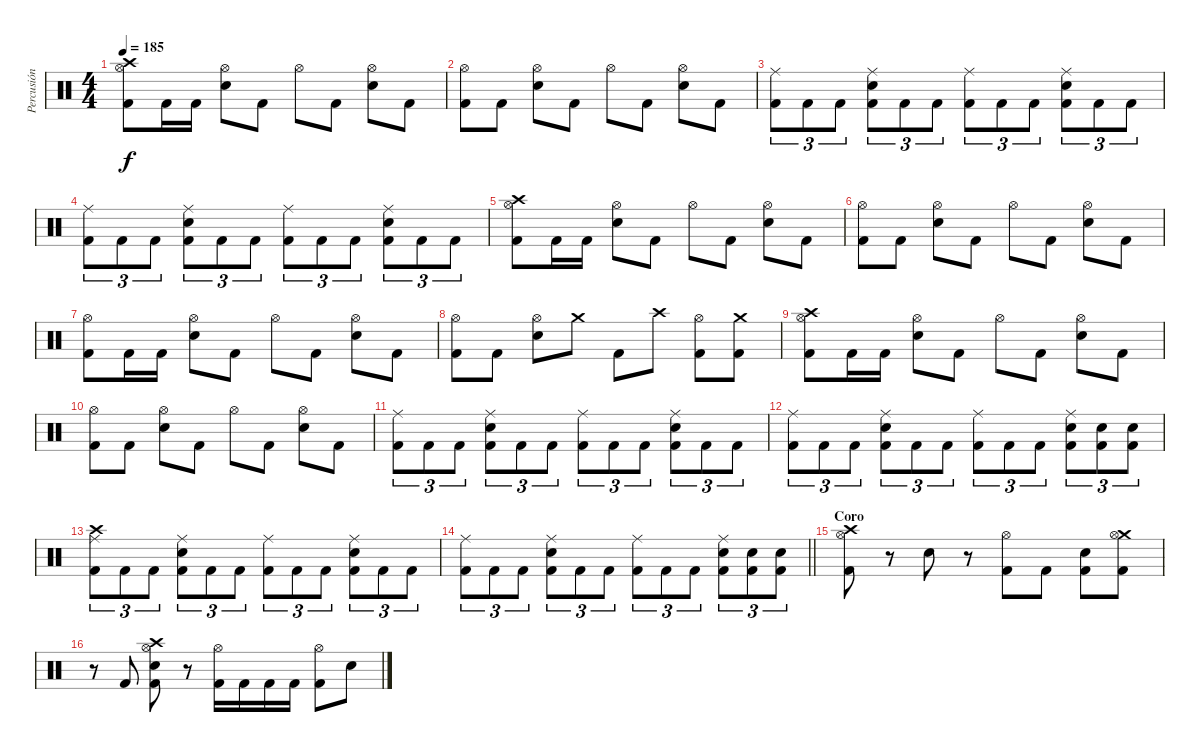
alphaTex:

\track ("Percusión" "Percusión") {instrument percussion}
\staff {score}
\articulation defaults
\ts (4 4)
\tempo 185
\clef neutral
\ks c
("Crash high (hit)" "Hi-Hat (open)" "Kick (hit) 2").8{dy f} "Kick (hit) 2".16 "Kick (hit) 2".16 ("Hi-Hat (open)" "Snare (hit) 2").8 "Kick (hit) 2".8 "Hi-Hat (open)".8 "Kick (hit) 2".8 ("Hi-Hat (open)" "Snare (hit) 2").8 "Kick (hit) 2".8 |
("Hi-Hat (open)" "Kick (hit) 2").8 "Kick (hit) 2".8 ("Hi-Hat (open)" "Snare (hit) 2").8 "Kick (hit) 2".8 "Hi-Hat (open)".8 "Kick (hit) 2".8 ("Hi-Hat (open)" "Snare (hit) 2").8 "Kick (hit) 2".8 |
("Ride (middle)" "Kick (hit) 2").8{tu (3 2)} "Kick (hit) 2".8{tu (3 2)} "Kick (hit) 2".8{tu (3 2)} ("Ride (middle)" "Snare (hit) 2" "Kick (hit) 2").8{tu (3 2)} "Kick (hit) 2".8{tu (3 2)} "Kick (hit) 2".8{tu (3 2)} ("Ride (middle)" "Kick (hit) 2").8{tu (3 2)} "Kick (hit) 2".8{tu (3 2)} "Kick (hit) 2".8{tu (3 2)} ("Ride (middle)" "Snare (hit) 2" "Kick (hit) 2").8{tu (3 2)} "Kick (hit) 2".8{tu (3 2)} "Kick (hit) 2".8{tu (3 2)} |
("Ride (middle)" "Kick (hit) 2").8{tu (3 2)} "Kick (hit) 2".8{tu (3 2)} "Kick (hit) 2".8{tu (3 2)} ("Ride (middle)" "Snare (hit) 2" "Kick (hit) 2").8{tu (3 2)} "Kick (hit) 2".8{tu (3 2)} "Kick (hit) 2".8{tu (3 2)} ("Ride (middle)" "Kick (hit) 2").8{tu (3 2)} "Kick (hit) 2".8{tu (3 2)} "Kick (hit) 2".8{tu (3 2)} ("Ride (middle)" "Snare (hit) 2" "Kick (hit) 2").8{tu (3 2)} "Kick (hit) 2".8{tu (3 2)} "Kick (hit) 2".8{tu (3 2)} |
("Crash high (hit)" "Hi-Hat (open)" "Kick (hit) 2").8 "Kick (hit) 2".16 "Kick (hit) 2".16 ("Hi-Hat (open)" "Snare (hit) 2").8 "Kick (hit) 2".8 "Hi-Hat (open)".8 "Kick (hit) 2".8 ("Hi-Hat (open)" "Snare (hit) 2").8 "Kick (hit) 2".8 |
("Hi-Hat (open)" "Kick (hit) 2").8 "Kick (hit) 2".8 ("Hi-Hat (open)" "Snare (hit) 2").8 "Kick (hit) 2".8 "Hi-Hat (open)".8 "Kick (hit) 2".8 ("Hi-Hat (open)" "Snare (hit) 2").8 "Kick (hit) 2".8 |
("Hi-Hat (open)" "Kick (hit) 2").8 "Kick (hit) 2".16 "Kick (hit) 2".16 ("Hi-Hat (open)" "Snare (hit) 2").8 "Kick (hit) 2".8 "Hi-Hat (open)".8 "Kick (hit) 2".8 ("Hi-Hat (open)" "Snare (hit) 2").8 "Kick (hit) 2".8 |
("Hi-Hat (open)" "Kick (hit) 2").8 "Kick (hit) 2".8 ("Hi-Hat (open)" "Snare (hit) 2").8 "Crash medium (hit)".8 "Kick (hit) 2".8 "Crash high (hit)".8 ("Hi-Hat (open)" "Kick (hit) 2").8 ("Crash medium (hit)" "Kick (hit) 2").8 |
("Crash high (hit)" "Hi-Hat (open)" "Kick (hit) 2").8 "Kick (hit) 2".16 "Kick (hit) 2".16 ("Hi-Hat (open)" "Snare (hit) 2").8 "Kick (hit) 2".8 "Hi-Hat (open)".8 "Kick (hit) 2".8 ("Hi-Hat (open)" "Snare (hit) 2").8 "Kick (hit) 2".8 |
("Hi-Hat (open)" "Kick (hit) 2").8 "Kick (hit) 2".8 ("Hi-Hat (open)" "Snare (hit) 2").8 "Kick (hit) 2".8 "Hi-Hat (open)".8 "Kick (hit) 2".8 ("Hi-Hat (open)" "Snare (hit) 2").8 "Kick (hit) 2".8 |
("Ride (middle)" "Kick (hit) 2").8{tu (3 2)} "Kick (hit) 2".8{tu (3 2)} "Kick (hit) 2".8{tu (3 2)} ("Ride (middle)" "Snare (hit) 2" "Kick (hit) 2").8{tu (3 2)} "Kick (hit) 2".8{tu (3 2)} "Kick (hit) 2".8{tu (3 2)} ("Ride (middle)" "Kick (hit) 2").8{tu (3 2)} "Kick (hit) 2".8{tu (3 2)} "Kick (hit) 2".8{tu (3 2)} ("Ride (middle)" "Snare (hit) 2" "Kick (hit) 2").8{tu (3 2)} "Kick (hit) 2".8{tu (3 2)} "Kick (hit) 2".8{tu (3 2)} |
("Ride (middle)" "Kick (hit) 2").8{tu (3 2)} "Kick (hit) 2".8{tu (3 2)} "Kick (hit) 2".8{tu (3 2)} ("Ride (middle)" "Snare (hit) 2" "Kick (hit) 2").8{tu (3 2)} "Kick (hit) 2".8{tu (3 2)} "Kick (hit) 2".8{tu (3 2)} ("Ride (middle)" "Kick (hit) 2").8{tu (3 2)} "Kick (hit) 2".8{tu (3 2)} "Kick (hit) 2".8{tu (3 2)} ("Ride (middle)" "Snare (hit) 2" "Kick (hit) 2").8{tu (3 2)} ("Snare (hit) 2" "Kick (hit) 2").8{tu (3 2)} ("Snare (hit) 2" "Kick (hit) 2").8{tu (3 2)} |
("Crash high (hit)" "Ride (middle)" "Kick (hit) 2").8{tu (3 2)} "Kick (hit) 2".8{tu (3 2)} "Kick (hit) 2".8{tu (3 2)} ("Ride (middle)" "Snare (hit) 2" "Kick (hit) 2").8{tu (3 2)} "Kick (hit) 2".8{tu (3 2)} "Kick (hit) 2".8{tu (3 2)} ("Ride (middle)" "Kick (hit) 2").8{tu (3 2)} "Kick (hit) 2".8{tu (3 2)} "Kick (hit) 2".8{tu (3 2)} ("Ride (middle)" "Snare (hit) 2" "Kick (hit) 2").8{tu (3 2)} "Kick (hit) 2".8{tu (3 2)} "Kick (hit) 2".8{tu (3 2)} |
\barLineRight lightlight
("Ride (middle)" "Kick (hit) 2").8{tu (3 2)} "Kick (hit) 2".8{tu (3 2)} "Kick (hit) 2".8{tu (3 2)} ("Ride (middle)" "Snare (hit) 2" "Kick (hit) 2").8{tu (3 2)} "Kick (hit) 2".8{tu (3 2)} "Kick (hit) 2".8{tu (3 2)} ("Ride (middle)" "Kick (hit) 2").8{tu (3 2)} "Kick (hit) 2".8{tu (3 2)} "Kick (hit) 2".8{tu (3 2)} ("Ride (middle)" "Snare (hit) 2" "Kick (hit) 2").8{tu (3 2)} ("Snare (hit) 2" "Kick (hit) 2").8{tu (3 2)} ("Snare (hit) 2" "Kick (hit) 2").8{tu (3 2)} |
\section ("" "Coro")
("Crash high (hit)" "Hi-Hat (open)" "Kick (hit) 2").8 r.8 "Snare (hit) 2".8 r.8 ("Hi-Hat (open)" "Kick (hit) 2").8 "Kick (hit) 2".8 ("Snare (hit) 2" "Kick (hit) 2").8 ("Crash medium (hit)" "Hi-Hat (open)" "Kick (hit) 2").8 |
r.8 "Kick (hit) 2".8 ("Crash high (hit)" "Hi-Hat (open)" "Snare (hit) 2" "Kick (hit) 2").8 r.8 ("Hi-Hat (open)" "Kick (hit) 2").16 "Kick (hit) 2".16 "Kick (hit) 2".16 "Kick (hit) 2".16 ("Hi-Hat (open)" "Kick (hit) 2").8 "Snare (hit) 2".8
